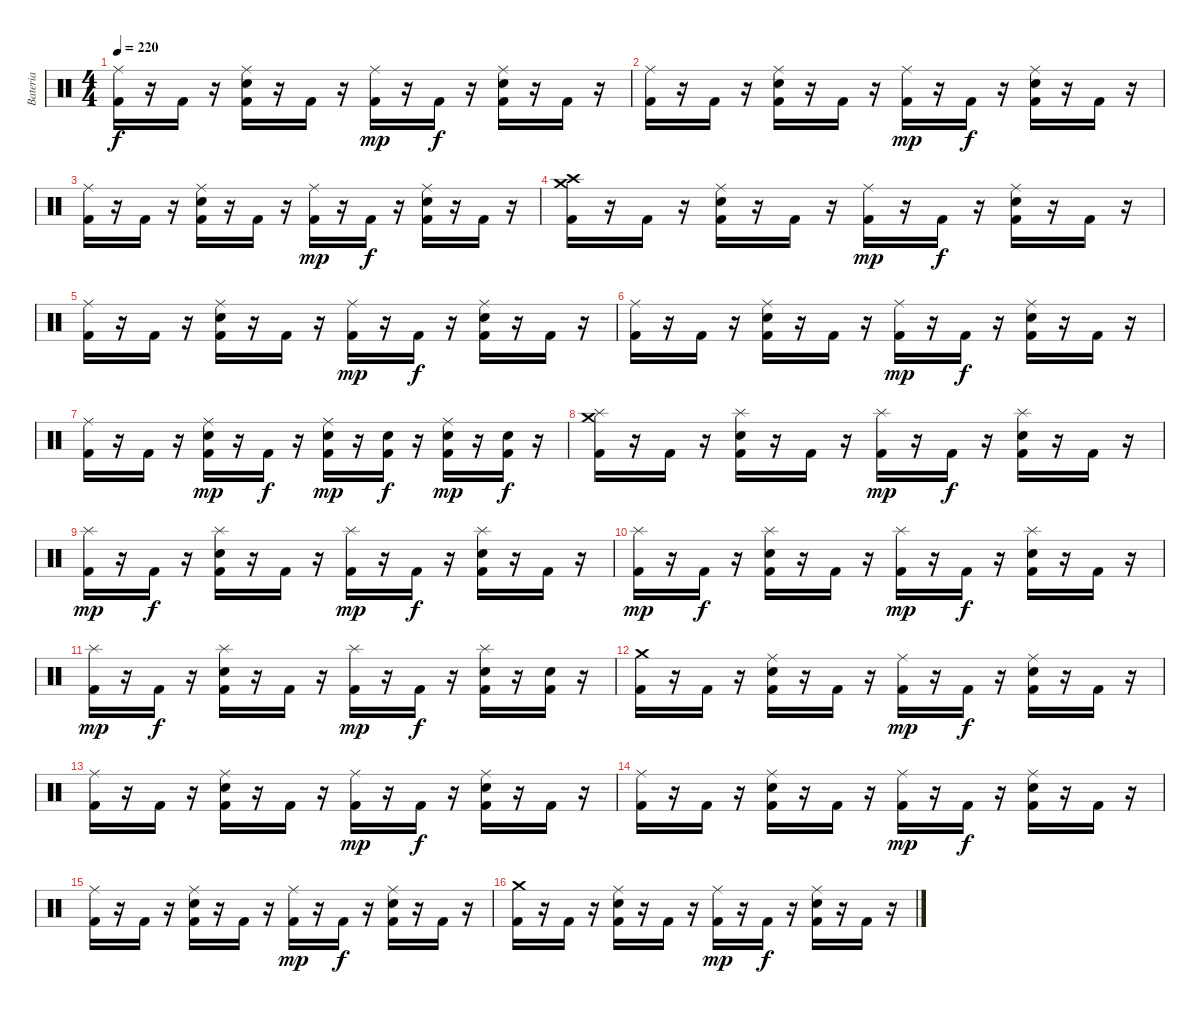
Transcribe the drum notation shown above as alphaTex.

\track ("Bateria" "Bateria") {instrument percussion}
\staff {score}
\articulation defaults
\ts (4 4)
\tempo 220
\clef neutral
\ks c
("Ride (middle)" "Kick (hit) 2").16{dy f} r.16 "Kick (hit) 2".16 r.16 ("Ride (middle)" "Electric Snare (hit)" "Kick (hit) 2").16 r.16 "Kick (hit) 2".16 r.16 ("Ride (middle)" "Kick (hit) 2").16{dy mp} r.16 "Kick (hit) 2".16{dy f} r.16 ("Ride (middle)" "Electric Snare (hit)" "Kick (hit) 2").16 r.16 "Kick (hit) 2".16 r.16 |
("Ride (middle)" "Kick (hit) 2").16 r.16 "Kick (hit) 2".16 r.16 ("Ride (middle)" "Electric Snare (hit)" "Kick (hit) 2").16 r.16 "Kick (hit) 2".16 r.16 ("Ride (middle)" "Kick (hit) 2").16{dy mp} r.16 "Kick (hit) 2".16{dy f} r.16 ("Ride (middle)" "Electric Snare (hit)" "Kick (hit) 2").16 r.16 "Kick (hit) 2".16 r.16 |
("Ride (middle)" "Kick (hit) 2").16 r.16 "Kick (hit) 2".16 r.16 ("Ride (middle)" "Electric Snare (hit)" "Kick (hit) 2").16 r.16 "Kick (hit) 2".16 r.16 ("Ride (middle)" "Kick (hit) 2").16{dy mp} r.16 "Kick (hit) 2".16{dy f} r.16 ("Ride (middle)" "Electric Snare (hit)" "Kick (hit) 2").16 r.16 "Kick (hit) 2".16 r.16 |
("Crash medium (hit)" "Crash high (hit)" "Kick (hit) 2").16 r.16 "Kick (hit) 2".16 r.16 ("Ride (middle)" "Electric Snare (hit)" "Kick (hit) 2").16 r.16 "Kick (hit) 2".16 r.16 ("Ride (middle)" "Kick (hit) 2").16{dy mp} r.16 "Kick (hit) 2".16{dy f} r.16 ("Ride (middle)" "Electric Snare (hit)" "Kick (hit) 2").16 r.16 "Kick (hit) 2".16 r.16 |
("Ride (middle)" "Kick (hit) 2").16 r.16 "Kick (hit) 2".16 r.16 ("Ride (middle)" "Electric Snare (hit)" "Kick (hit) 2").16 r.16 "Kick (hit) 2".16 r.16 ("Ride (middle)" "Kick (hit) 2").16{dy mp} r.16 "Kick (hit) 2".16{dy f} r.16 ("Ride (middle)" "Electric Snare (hit)" "Kick (hit) 2").16 r.16 "Kick (hit) 2".16 r.16 |
("Ride (middle)" "Kick (hit) 2").16 r.16 "Kick (hit) 2".16 r.16 ("Ride (middle)" "Electric Snare (hit)" "Kick (hit) 2").16 r.16 "Kick (hit) 2".16 r.16 ("Ride (middle)" "Kick (hit) 2").16{dy mp} r.16 "Kick (hit) 2".16{dy f} r.16 ("Ride (middle)" "Electric Snare (hit)" "Kick (hit) 2").16 r.16 "Kick (hit) 2".16 r.16 |
("Ride (middle)" "Kick (hit) 2").16 r.16 "Kick (hit) 2".16 r.16 ("Ride (middle)" "Electric Snare (hit)" "Kick (hit) 2").16{dy mp} r.16 "Kick (hit) 2".16{dy f} r.16 ("Ride (middle)" "Electric Snare (hit)" "Kick (hit) 2").16{dy mp} r.16 ("Electric Snare (hit)" "Kick (hit) 2").16{dy f} r.16 ("Ride (middle)" "Electric Snare (hit)" "Kick (hit) 2").16{dy mp} r.16 ("Electric Snare (hit)" "Kick (hit) 2").16{dy f} r.16 |
("Splash (hit)" "Crash medium (hit)" "Kick (hit) 2").16 r.16 "Kick (hit) 2".16 r.16 ("Splash (hit)" "Electric Snare (hit)" "Kick (hit) 2").16 r.16 "Kick (hit) 2".16 r.16 ("Splash (hit)" "Kick (hit) 2").16{dy mp} r.16 "Kick (hit) 2".16{dy f} r.16 ("Splash (hit)" "Electric Snare (hit)" "Kick (hit) 2").16 r.16 "Kick (hit) 2".16 r.16 |
("Splash (hit)" "Kick (hit) 2").16{dy mp} r.16 "Kick (hit) 2".16{dy f} r.16 ("Splash (hit)" "Electric Snare (hit)" "Kick (hit) 2").16 r.16 "Kick (hit) 2".16 r.16 ("Splash (hit)" "Kick (hit) 2").16{dy mp} r.16 "Kick (hit) 2".16{dy f} r.16 ("Splash (hit)" "Electric Snare (hit)" "Kick (hit) 2").16 r.16 "Kick (hit) 2".16 r.16 |
("Splash (hit)" "Kick (hit) 2").16{dy mp} r.16 "Kick (hit) 2".16{dy f} r.16 ("Splash (hit)" "Electric Snare (hit)" "Kick (hit) 2").16 r.16 "Kick (hit) 2".16 r.16 ("Splash (hit)" "Kick (hit) 2").16{dy mp} r.16 "Kick (hit) 2".16{dy f} r.16 ("Splash (hit)" "Electric Snare (hit)" "Kick (hit) 2").16 r.16 "Kick (hit) 2".16 r.16 |
("Splash (hit)" "Kick (hit) 2").16{dy mp} r.16 "Kick (hit) 2".16{dy f} r.16 ("Splash (hit)" "Electric Snare (hit)" "Kick (hit) 2").16 r.16 "Kick (hit) 2".16 r.16 ("Splash (hit)" "Kick (hit) 2").16{dy mp} r.16 "Kick (hit) 2".16{dy f} r.16 ("Splash (hit)" "Electric Snare (hit)" "Kick (hit) 2").16 r.16 ("Electric Snare (hit)" "Kick (hit) 2").16 r.16 |
("Crash medium (hit)" "Kick (hit) 2").16 r.16 "Kick (hit) 2".16 r.16 ("Ride (middle)" "Electric Snare (hit)" "Kick (hit) 2").16 r.16 "Kick (hit) 2".16 r.16 ("Ride (middle)" "Kick (hit) 2").16{dy mp} r.16 "Kick (hit) 2".16{dy f} r.16 ("Ride (middle)" "Electric Snare (hit)" "Kick (hit) 2").16 r.16 "Kick (hit) 2".16 r.16 |
("Ride (middle)" "Kick (hit) 2").16 r.16 "Kick (hit) 2".16 r.16 ("Ride (middle)" "Electric Snare (hit)" "Kick (hit) 2").16 r.16 "Kick (hit) 2".16 r.16 ("Ride (middle)" "Kick (hit) 2").16{dy mp} r.16 "Kick (hit) 2".16{dy f} r.16 ("Ride (middle)" "Electric Snare (hit)" "Kick (hit) 2").16 r.16 "Kick (hit) 2".16 r.16 |
("Ride (middle)" "Kick (hit) 2").16 r.16 "Kick (hit) 2".16 r.16 ("Ride (middle)" "Electric Snare (hit)" "Kick (hit) 2").16 r.16 "Kick (hit) 2".16 r.16 ("Ride (middle)" "Kick (hit) 2").16{dy mp} r.16 "Kick (hit) 2".16{dy f} r.16 ("Ride (middle)" "Electric Snare (hit)" "Kick (hit) 2").16 r.16 "Kick (hit) 2".16 r.16 |
("Ride (middle)" "Kick (hit) 2").16 r.16 "Kick (hit) 2".16 r.16 ("Ride (middle)" "Electric Snare (hit)" "Kick (hit) 2").16 r.16 "Kick (hit) 2".16 r.16 ("Ride (middle)" "Kick (hit) 2").16{dy mp} r.16 "Kick (hit) 2".16{dy f} r.16 ("Ride (middle)" "Electric Snare (hit)" "Kick (hit) 2").16 r.16 "Kick (hit) 2".16 r.16 |
("Crash medium (hit)" "Kick (hit) 2").16 r.16 "Kick (hit) 2".16 r.16 ("Ride (middle)" "Electric Snare (hit)" "Kick (hit) 2").16 r.16 "Kick (hit) 2".16 r.16 ("Ride (middle)" "Kick (hit) 2").16{dy mp} r.16 "Kick (hit) 2".16{dy f} r.16 ("Ride (middle)" "Electric Snare (hit)" "Kick (hit) 2").16 r.16 "Kick (hit) 2".16 r.16
